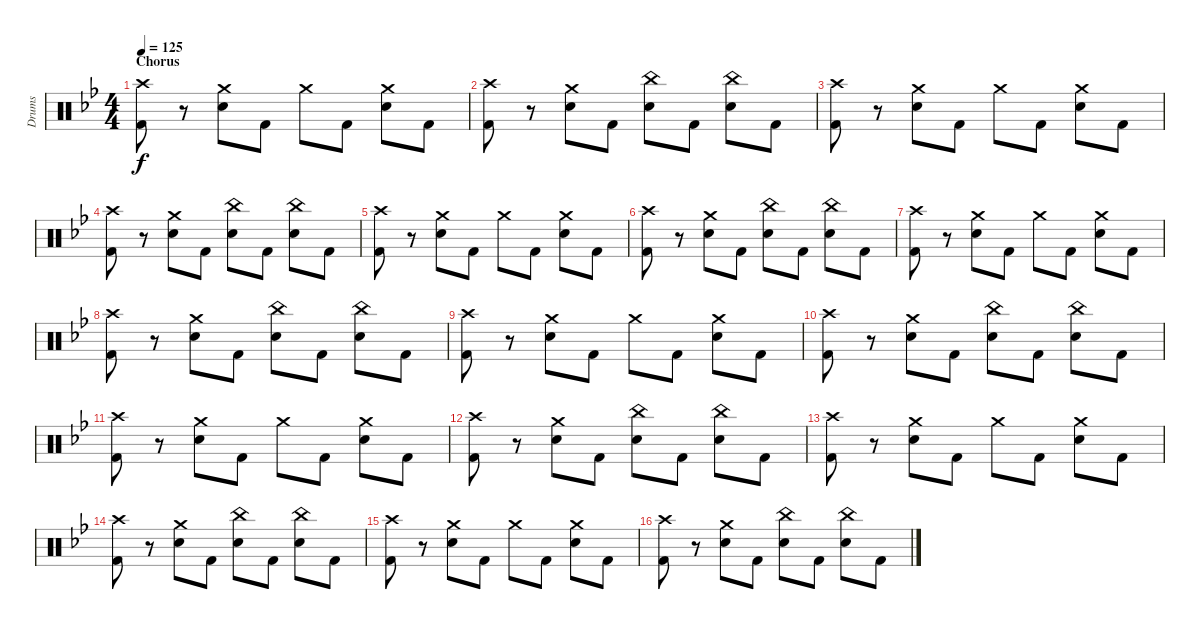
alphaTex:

\track ("Drums" "Drums") {instrument percussion}
\staff {score}
\articulation defaults
\ts (4 4)
\section ("" "Chorus")
\tempo 125
\clef neutral
\ks gminor
("Crash high (hit)" "Kick (hit) 2").8{dy f} r.8 ("Crash medium (hit)" "Snare (hit) 2").8 "Kick (hit) 2".8 "Crash medium (hit)".8 "Kick (hit) 2".8 ("Crash medium (hit)" "Snare (hit) 2").8 "Kick (hit) 2".8 |
("Crash high (hit)" "Kick (hit) 2").8 r.8 ("Crash medium (hit)" "Snare (hit) 2").8 "Kick (hit) 2".8 ("China (hit)" "Snare (hit) 2").8 "Kick (hit) 2".8 ("China (hit)" "Snare (hit) 2").8 "Kick (hit) 2".8 |
("Crash high (hit)" "Kick (hit) 2").8 r.8 ("Crash medium (hit)" "Snare (hit) 2").8 "Kick (hit) 2".8 "Crash medium (hit)".8 "Kick (hit) 2".8 ("Crash medium (hit)" "Snare (hit) 2").8 "Kick (hit) 2".8 |
("Crash high (hit)" "Kick (hit) 2").8 r.8 ("Crash medium (hit)" "Snare (hit) 2").8 "Kick (hit) 2".8 ("China (hit)" "Snare (hit) 2").8 "Kick (hit) 2".8 ("China (hit)" "Snare (hit) 2").8 "Kick (hit) 2".8 |
("Crash high (hit)" "Kick (hit) 2").8 r.8 ("Crash medium (hit)" "Snare (hit) 2").8 "Kick (hit) 2".8 "Crash medium (hit)".8 "Kick (hit) 2".8 ("Crash medium (hit)" "Snare (hit) 2").8 "Kick (hit) 2".8 |
("Crash high (hit)" "Kick (hit) 2").8 r.8 ("Crash medium (hit)" "Snare (hit) 2").8 "Kick (hit) 2".8 ("China (hit)" "Snare (hit) 2").8 "Kick (hit) 2".8 ("China (hit)" "Snare (hit) 2").8 "Kick (hit) 2".8 |
("Crash high (hit)" "Kick (hit) 2").8 r.8 ("Crash medium (hit)" "Snare (hit) 2").8 "Kick (hit) 2".8 "Crash medium (hit)".8 "Kick (hit) 2".8 ("Crash medium (hit)" "Snare (hit) 2").8 "Kick (hit) 2".8 |
("Crash high (hit)" "Kick (hit) 2").8 r.8 ("Crash medium (hit)" "Snare (hit) 2").8 "Kick (hit) 2".8 ("China (hit)" "Snare (hit) 2").8 "Kick (hit) 2".8 ("China (hit)" "Snare (hit) 2").8 "Kick (hit) 2".8 |
("Crash high (hit)" "Kick (hit) 2").8 r.8 ("Crash medium (hit)" "Snare (hit) 2").8 "Kick (hit) 2".8 "Crash medium (hit)".8 "Kick (hit) 2".8 ("Crash medium (hit)" "Snare (hit) 2").8 "Kick (hit) 2".8 |
("Crash high (hit)" "Kick (hit) 2").8 r.8 ("Crash medium (hit)" "Snare (hit) 2").8 "Kick (hit) 2".8 ("China (hit)" "Snare (hit) 2").8 "Kick (hit) 2".8 ("China (hit)" "Snare (hit) 2").8 "Kick (hit) 2".8 |
("Crash high (hit)" "Kick (hit) 2").8 r.8 ("Crash medium (hit)" "Snare (hit) 2").8 "Kick (hit) 2".8 "Crash medium (hit)".8 "Kick (hit) 2".8 ("Crash medium (hit)" "Snare (hit) 2").8 "Kick (hit) 2".8 |
("Crash high (hit)" "Kick (hit) 2").8 r.8 ("Crash medium (hit)" "Snare (hit) 2").8 "Kick (hit) 2".8 ("China (hit)" "Snare (hit) 2").8 "Kick (hit) 2".8 ("China (hit)" "Snare (hit) 2").8 "Kick (hit) 2".8 |
("Crash high (hit)" "Kick (hit) 2").8 r.8 ("Crash medium (hit)" "Snare (hit) 2").8 "Kick (hit) 2".8 "Crash medium (hit)".8 "Kick (hit) 2".8 ("Crash medium (hit)" "Snare (hit) 2").8 "Kick (hit) 2".8 |
("Crash high (hit)" "Kick (hit) 2").8 r.8 ("Crash medium (hit)" "Snare (hit) 2").8 "Kick (hit) 2".8 ("China (hit)" "Snare (hit) 2").8 "Kick (hit) 2".8 ("China (hit)" "Snare (hit) 2").8 "Kick (hit) 2".8 |
("Crash high (hit)" "Kick (hit) 2").8 r.8 ("Crash medium (hit)" "Snare (hit) 2").8 "Kick (hit) 2".8 "Crash medium (hit)".8 "Kick (hit) 2".8 ("Crash medium (hit)" "Snare (hit) 2").8 "Kick (hit) 2".8 |
("Crash high (hit)" "Kick (hit) 2").8 r.8 ("Crash medium (hit)" "Snare (hit) 2").8 "Kick (hit) 2".8 ("China (hit)" "Snare (hit) 2").8 "Kick (hit) 2".8 ("China (hit)" "Snare (hit) 2").8 "Kick (hit) 2".8
